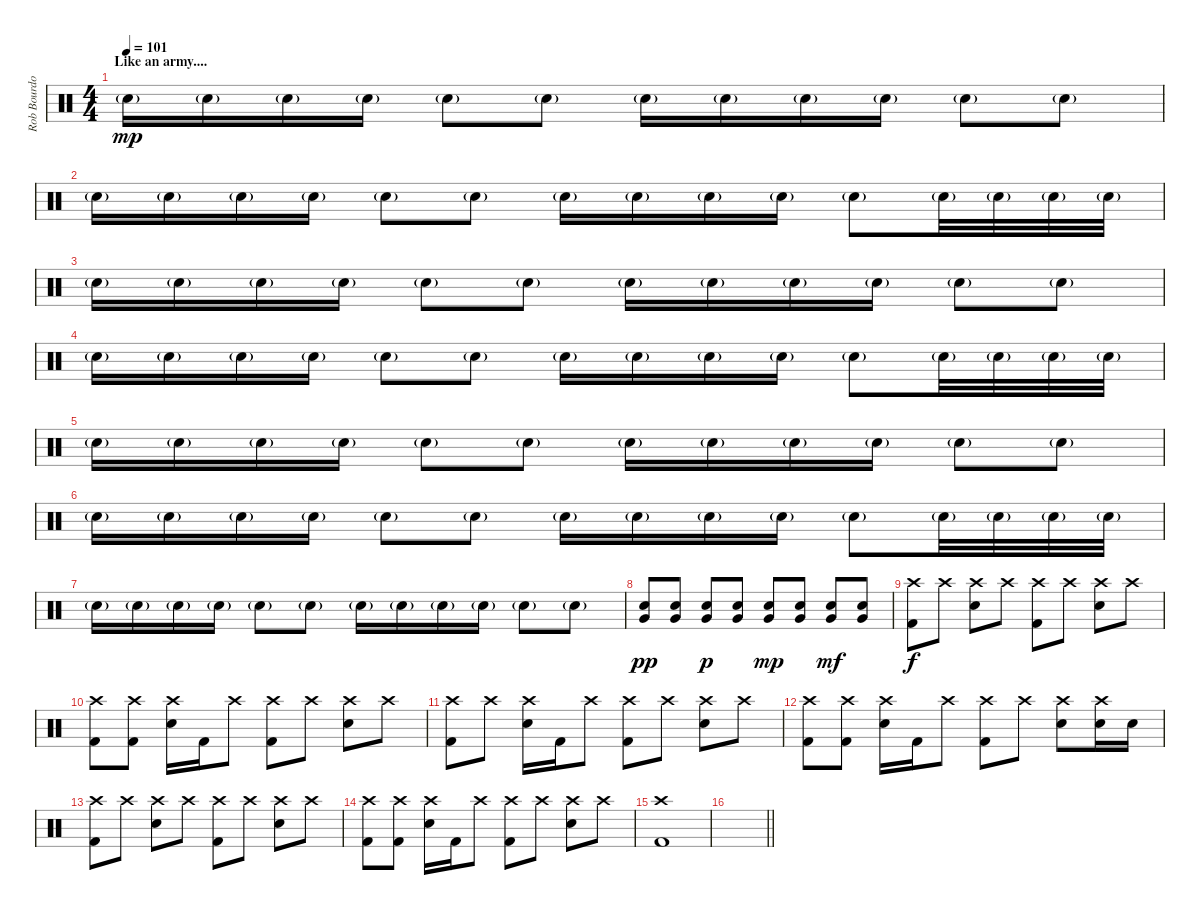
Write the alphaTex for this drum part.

\track ("Rob Bourdon" "Rob Bourdo") {instrument percussion}
\staff {score}
\articulation defaults
\ts (4 4)
\section ("" "Like an army....")
\tempo 101
\clef neutral
\ks c "Electric Snare (hit)"{g}.16{dy mp} "Electric Snare (hit)"{g}.16 "Electric Snare (hit)"{g}.16 "Electric Snare (hit)"{g}.16 "Electric Snare (hit)"{g}.8 "Electric Snare (hit)"{g}.8 "Electric Snare (hit)"{g}.16 "Electric Snare (hit)"{g}.16 "Electric Snare (hit)"{g}.16 "Electric Snare (hit)"{g}.16 "Electric Snare (hit)"{g}.8 "Electric Snare (hit)"{g}.8
|
"Electric Snare (hit)"{g}.16 "Electric Snare (hit)"{g}.16 "Electric Snare (hit)"{g}.16 "Electric Snare (hit)"{g}.16 "Electric Snare (hit)"{g}.8 "Electric Snare (hit)"{g}.8 "Electric Snare (hit)"{g}.16 "Electric Snare (hit)"{g}.16 "Electric Snare (hit)"{g}.16 "Electric Snare (hit)"{g}.16 "Electric Snare (hit)"{g}.8 "Electric Snare (hit)"{g}.32 "Electric Snare (hit)"{g}.32 "Electric Snare (hit)"{g}.32 "Electric Snare (hit)"{g}.32 |
"Electric Snare (hit)"{g}.16 "Electric Snare (hit)"{g}.16 "Electric Snare (hit)"{g}.16 "Electric Snare (hit)"{g}.16 "Electric Snare (hit)"{g}.8 "Electric Snare (hit)"{g}.8 "Electric Snare (hit)"{g}.16 "Electric Snare (hit)"{g}.16 "Electric Snare (hit)"{g}.16 "Electric Snare (hit)"{g}.16 "Electric Snare (hit)"{g}.8 "Electric Snare (hit)"{g}.8 |
"Electric Snare (hit)"{g}.16 "Electric Snare (hit)"{g}.16 "Electric Snare (hit)"{g}.16 "Electric Snare (hit)"{g}.16 "Electric Snare (hit)"{g}.8 "Electric Snare (hit)"{g}.8 "Electric Snare (hit)"{g}.16 "Electric Snare (hit)"{g}.16 "Electric Snare (hit)"{g}.16 "Electric Snare (hit)"{g}.16 "Electric Snare (hit)"{g}.8 "Electric Snare (hit)"{g}.32 "Electric Snare (hit)"{g}.32 "Electric Snare (hit)"{g}.32 "Electric Snare (hit)"{g}.32 |
"Electric Snare (hit)"{g}.16 "Electric Snare (hit)"{g}.16 "Electric Snare (hit)"{g}.16 "Electric Snare (hit)"{g}.16 "Electric Snare (hit)"{g}.8 "Electric Snare (hit)"{g}.8 "Electric Snare (hit)"{g}.16 "Electric Snare (hit)"{g}.16 "Electric Snare (hit)"{g}.16 "Electric Snare (hit)"{g}.16 "Electric Snare (hit)"{g}.8 "Electric Snare (hit)"{g}.8 |
"Electric Snare (hit)"{g}.16 "Electric Snare (hit)"{g}.16 "Electric Snare (hit)"{g}.16 "Electric Snare (hit)"{g}.16 "Electric Snare (hit)"{g}.8 "Electric Snare (hit)"{g}.8 "Electric Snare (hit)"{g}.16 "Electric Snare (hit)"{g}.16 "Electric Snare (hit)"{g}.16 "Electric Snare (hit)"{g}.16 "Electric Snare (hit)"{g}.8 "Electric Snare (hit)"{g}.32 "Electric Snare (hit)"{g}.32 "Electric Snare (hit)"{g}.32 "Electric Snare (hit)"{g}.32 |
"Electric Snare (hit)"{g}.16 "Electric Snare (hit)"{g}.16 "Electric Snare (hit)"{g}.16 "Electric Snare (hit)"{g}.16 "Electric Snare (hit)"{g}.8 "Electric Snare (hit)"{g}.8 "Electric Snare (hit)"{g}.16 "Electric Snare (hit)"{g}.16 "Electric Snare (hit)"{g}.16 "Electric Snare (hit)"{g}.16 "Electric Snare (hit)"{g}.8 "Electric Snare (hit)"{g}.8 |
("Electric Snare (hit)" "Very Low Tom (hit)").8{dy pp} ("Electric Snare (hit)" "Very Low Tom (hit)").8 ("Electric Snare (hit)" "Very Low Tom (hit)").8{dy p} ("Electric Snare (hit)" "Very Low Tom (hit)").8 ("Electric Snare (hit)" "Very Low Tom (hit)").8{dy mp} ("Electric Snare (hit)" "Very Low Tom (hit)").8 ("Electric Snare (hit)" "Very Low Tom (hit)").8{dy mf} ("Electric Snare (hit)" "Very Low Tom (hit)").8 |
("Crash high (hit)" "Kick (hit) 2").8{dy f} "Crash high (hit)".8 ("Crash high (hit)" "Electric Snare (hit)").8 "Crash high (hit)".8 ("Crash high (hit)" "Kick (hit) 2").8 "Crash high (hit)".8 ("Crash high (hit)" "Electric Snare (hit)").8 "Crash high (hit)".8 |
("Crash high (hit)" "Kick (hit) 2").8 ("Crash high (hit)" "Kick (hit) 2").8 ("Crash high (hit)" "Electric Snare (hit)").16 "Kick (hit) 2".16 "Crash high (hit)".8 ("Crash high (hit)" "Kick (hit) 2").8 "Crash high (hit)".8 ("Crash high (hit)" "Electric Snare (hit)").8 "Crash high (hit)".8 |
("Crash high (hit)" "Kick (hit) 2").8 "Crash high (hit)".8 ("Crash high (hit)" "Electric Snare (hit)").16 "Kick (hit) 2".16 "Crash high (hit)".8 ("Crash high (hit)" "Kick (hit) 2").8 "Crash high (hit)".8 ("Crash high (hit)" "Electric Snare (hit)").8 "Crash high (hit)".8 |
("Crash high (hit)" "Kick (hit) 2").8 ("Crash high (hit)" "Kick (hit) 2").8 ("Crash high (hit)" "Electric Snare (hit)").16 "Kick (hit) 2".16 "Crash high (hit)".8 ("Crash high (hit)" "Kick (hit) 2").8 "Crash high (hit)".8 ("Crash high (hit)" "Electric Snare (hit)").8 ("Crash high (hit)" "Electric Snare (hit)").16 "Electric Snare (hit)".16 |
("Crash high (hit)" "Kick (hit) 2").8 "Crash high (hit)".8 ("Crash high (hit)" "Electric Snare (hit)").8 "Crash high (hit)".8 ("Crash high (hit)" "Kick (hit) 2").8 "Crash high (hit)".8 ("Crash high (hit)" "Electric Snare (hit)").8 "Crash high (hit)".8 |
("Crash high (hit)" "Kick (hit) 2").8 ("Crash high (hit)" "Kick (hit) 2").8 ("Crash high (hit)" "Electric Snare (hit)").16 "Kick (hit) 2".16 "Crash high (hit)".8 ("Crash high (hit)" "Kick (hit) 2").8 "Crash high (hit)".8 ("Crash high (hit)" "Electric Snare (hit)").8 "Crash high (hit)".8 |
("Crash high (hit)" "Kick (hit) 2").1 |
\barLineRight lightlight
